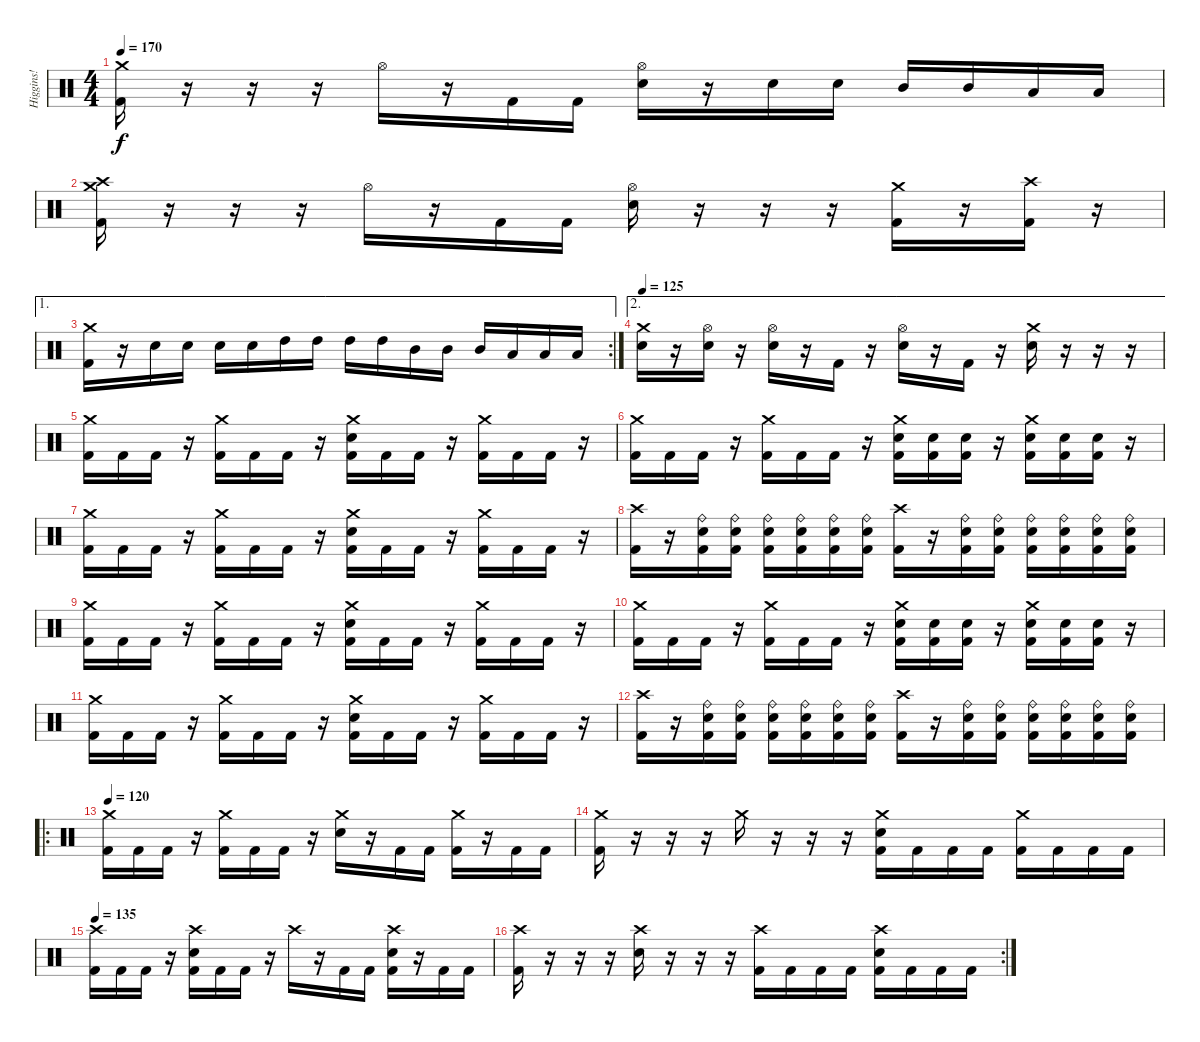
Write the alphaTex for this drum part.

\track ("Higgins!" "Higgins!") {instrument percussion}
\staff {score}
\articulation defaults
\ts (4 4)
\tempo 170
\clef neutral
\ks c
("Crash medium (hit)" "Kick (hit) 2").16{dy f} r.16 r.16 r.16 "Hi-Hat (open)".16 r.16 "Kick (hit) 2".16 "Kick (hit) 2".16 ("Hi-Hat (open)" "Snare (hit) 2").16 r.16 "Snare (hit) 2".16 "Snare (hit) 2".16 "Mid Tom (hit)".16 "Mid Tom (hit)".16 "Low Tom (hit)".16 "Low Tom (hit)".16 |
("Crash high (hit)" "Crash medium (hit)" "Kick (hit) 2").16 r.16 r.16 r.16 "Hi-Hat (open)".16 r.16 "Kick (hit) 2".16 "Kick (hit) 2".16 ("Hi-Hat (open)" "Snare (hit) 2").16 r.16 r.16 r.16 ("Crash medium (hit)" "Kick (hit) 2").16 r.16 ("Crash high (hit)" "Kick (hit) 2").16 r.16 |
\ae 1
\rc 2
("Crash medium (hit)" "Kick (hit) 2").16 r.16 "Snare (hit) 2".16 "Snare (hit) 2".16 "Snare (hit) 2".16 "Snare (hit) 2".16 "High Tom (hit)".16 "High Tom (hit)".16 "High Tom (hit)".16 "High Tom (hit)".16 "Mid Tom (hit)".16 "Mid Tom (hit)".16 "Mid Tom (hit)".16 "Low Tom (hit)".16 "Low Tom (hit)".16 "Low Tom (hit)".16 |
\ae 2
\tempo 125
("Crash medium (hit)" "Snare (hit) 2").16 r.16 ("Hi-Hat (open)" "Snare (hit) 2").16 r.16 ("Hi-Hat (open)" "Snare (hit) 2").16 r.16 "Kick (hit) 2".16 r.16 ("Hi-Hat (open)" "Snare (hit) 2").16 r.16 "Kick (hit) 2".16 r.16 ("Crash medium (hit)" "Snare (hit) 2").16 r.16 r.16 r.16 |
("Crash medium (hit)" "Kick (hit) 2").16 "Kick (hit) 2".16 "Kick (hit) 2".16 r.16 ("Crash medium (hit)" "Kick (hit) 2").16 "Kick (hit) 2".16 "Kick (hit) 2".16 r.16 ("Crash medium (hit)" "Snare (hit) 2" "Kick (hit) 2").16 "Kick (hit) 2".16 "Kick (hit) 2".16 r.16 ("Crash medium (hit)" "Kick (hit) 2").16 "Kick (hit) 2".16 "Kick (hit) 2".16 r.16 |
("Crash medium (hit)" "Kick (hit) 2").16 "Kick (hit) 2".16 "Kick (hit) 2".16 r.16 ("Crash medium (hit)" "Kick (hit) 2").16 "Kick (hit) 2".16 "Kick (hit) 2".16 r.16 ("Crash medium (hit)" "Snare (hit) 2" "Kick (hit) 2").16 ("Snare (hit) 2" "Kick (hit) 2").16 ("Snare (hit) 2" "Kick (hit) 2").16 r.16 ("Crash medium (hit)" "Snare (hit) 2" "Kick (hit) 2").16 ("Snare (hit) 2" "Kick (hit) 2").16 ("Snare (hit) 2" "Kick (hit) 2").16 r.16 |
("Crash medium (hit)" "Kick (hit) 2").16 "Kick (hit) 2".16 "Kick (hit) 2".16 r.16 ("Crash medium (hit)" "Kick (hit) 2").16 "Kick (hit) 2".16 "Kick (hit) 2".16 r.16 ("Crash medium (hit)" "Snare (hit) 2" "Kick (hit) 2").16 "Kick (hit) 2".16 "Kick (hit) 2".16 r.16 ("Crash medium (hit)" "Kick (hit) 2").16 "Kick (hit) 2".16 "Kick (hit) 2".16 r.16 |
("Crash high (hit)" "Kick (hit) 2").16 r.16 ("Ride (bell)" "Snare (hit) 2" "Kick (hit) 2").16 ("Ride (bell)" "Snare (hit) 2" "Kick (hit) 2").16 ("Ride (bell)" "Snare (hit) 2" "Kick (hit) 2").16 ("Ride (bell)" "Snare (hit) 2" "Kick (hit) 2").16 ("Ride (bell)" "Snare (hit) 2" "Kick (hit) 2").16 ("Ride (bell)" "Snare (hit) 2" "Kick (hit) 2").16 ("Crash high (hit)" "Kick (hit) 2").16 r.16 ("Ride (bell)" "Snare (hit) 2" "Kick (hit) 2").16 ("Ride (bell)" "Snare (hit) 2" "Kick (hit) 2").16 ("Ride (bell)" "Snare (hit) 2" "Kick (hit) 2").16 ("Ride (bell)" "Snare (hit) 2" "Kick (hit) 2").16 ("Ride (bell)" "Snare (hit) 2" "Kick (hit) 2").16 ("Ride (bell)" "Snare (hit) 2" "Kick (hit) 2").16 |
("Crash medium (hit)" "Kick (hit) 2").16 "Kick (hit) 2".16 "Kick (hit) 2".16 r.16 ("Crash medium (hit)" "Kick (hit) 2").16 "Kick (hit) 2".16 "Kick (hit) 2".16 r.16 ("Crash medium (hit)" "Snare (hit) 2" "Kick (hit) 2").16 "Kick (hit) 2".16 "Kick (hit) 2".16 r.16 ("Crash medium (hit)" "Kick (hit) 2").16 "Kick (hit) 2".16 "Kick (hit) 2".16 r.16 |
("Crash medium (hit)" "Kick (hit) 2").16 "Kick (hit) 2".16 "Kick (hit) 2".16 r.16 ("Crash medium (hit)" "Kick (hit) 2").16 "Kick (hit) 2".16 "Kick (hit) 2".16 r.16 ("Crash medium (hit)" "Snare (hit) 2" "Kick (hit) 2").16 ("Snare (hit) 2" "Kick (hit) 2").16 ("Snare (hit) 2" "Kick (hit) 2").16 r.16 ("Crash medium (hit)" "Snare (hit) 2" "Kick (hit) 2").16 ("Snare (hit) 2" "Kick (hit) 2").16 ("Snare (hit) 2" "Kick (hit) 2").16 r.16 |
("Crash medium (hit)" "Kick (hit) 2").16 "Kick (hit) 2".16 "Kick (hit) 2".16 r.16 ("Crash medium (hit)" "Kick (hit) 2").16 "Kick (hit) 2".16 "Kick (hit) 2".16 r.16 ("Crash medium (hit)" "Snare (hit) 2" "Kick (hit) 2").16 "Kick (hit) 2".16 "Kick (hit) 2".16 r.16 ("Crash medium (hit)" "Kick (hit) 2").16 "Kick (hit) 2".16 "Kick (hit) 2".16 r.16 |
("Crash high (hit)" "Kick (hit) 2").16 r.16 ("Ride (bell)" "Snare (hit) 2" "Kick (hit) 2").16 ("Ride (bell)" "Snare (hit) 2" "Kick (hit) 2").16 ("Ride (bell)" "Snare (hit) 2" "Kick (hit) 2").16 ("Ride (bell)" "Snare (hit) 2" "Kick (hit) 2").16 ("Ride (bell)" "Snare (hit) 2" "Kick (hit) 2").16 ("Ride (bell)" "Snare (hit) 2" "Kick (hit) 2").16 ("Crash high (hit)" "Kick (hit) 2").16 r.16 ("Ride (bell)" "Snare (hit) 2" "Kick (hit) 2").16 ("Ride (bell)" "Snare (hit) 2" "Kick (hit) 2").16 ("Ride (bell)" "Snare (hit) 2" "Kick (hit) 2").16 ("Ride (bell)" "Snare (hit) 2" "Kick (hit) 2").16 ("Ride (bell)" "Snare (hit) 2" "Kick (hit) 2").16 ("Ride (bell)" "Snare (hit) 2" "Kick (hit) 2").16 |
\ro
\tempo 120
("Crash medium (hit)" "Kick (hit) 2").16 "Kick (hit) 2".16 "Kick (hit) 2".16 r.16 ("Crash medium (hit)" "Kick (hit) 2").16 "Kick (hit) 2".16 "Kick (hit) 2".16 r.16 ("Crash medium (hit)" "Snare (hit) 2").16 r.16 "Kick (hit) 2".16 "Kick (hit) 2".16 ("Crash medium (hit)" "Kick (hit) 2").16 r.16 "Kick (hit) 2".16 "Kick (hit) 2".16 |
("Crash medium (hit)" "Kick (hit) 2").16 r.16 r.16 r.16 "Crash medium (hit)".16 r.16 r.16 r.16 ("Crash medium (hit)" "Snare (hit) 2" "Kick (hit) 2").16 "Kick (hit) 2".16 "Kick (hit) 2".16 "Kick (hit) 2".16 ("Crash medium (hit)" "Kick (hit) 2").16 "Kick (hit) 2".16 "Kick (hit) 2".16 "Kick (hit) 2".16 |
\tempo 135
("Crash high (hit)" "Kick (hit) 2").16 "Kick (hit) 2".16 "Kick (hit) 2".16 r.16 ("Crash high (hit)" "Snare (hit) 2" "Kick (hit) 2").16 "Kick (hit) 2".16 "Kick (hit) 2".16 r.16 "Crash high (hit)".16 r.16 "Kick (hit) 2".16 "Kick (hit) 2".16 ("Crash high (hit)" "Snare (hit) 2" "Kick (hit) 2").16 r.16 "Kick (hit) 2".16 "Kick (hit) 2".16 |
\rc 2
("Crash high (hit)" "Kick (hit) 2").16 r.16 r.16 r.16 ("Crash high (hit)" "Snare (hit) 2").16 r.16 r.16 r.16 ("Crash high (hit)" "Kick (hit) 2").16 "Kick (hit) 2".16 "Kick (hit) 2".16 "Kick (hit) 2".16 ("Crash high (hit)" "Snare (hit) 2" "Kick (hit) 2").16 "Kick (hit) 2".16 "Kick (hit) 2".16 "Kick (hit) 2".16
